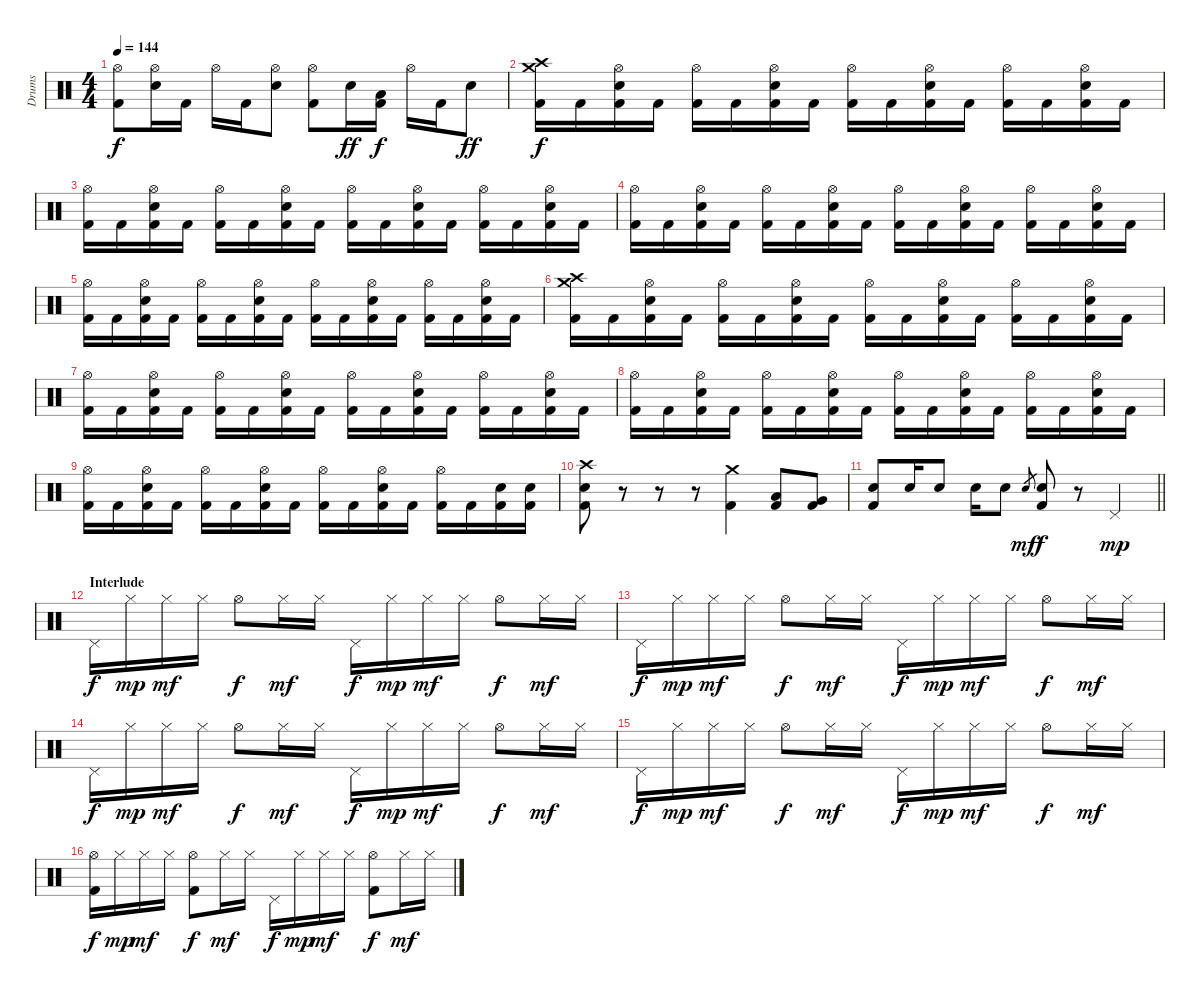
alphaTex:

\track ("Drums" "Drums") {instrument percussion}
\staff {score}
\articulation defaults
\ts (4 4)
\tempo 144
\clef neutral
\ks c
("Kick (hit) 2" "Hi-Hat (open)").8{dy f} ("Electric Snare (hit)" "Hi-Hat (open)").16 "Kick (hit) 2".16 "Hi-Hat (open)".16 "Kick (hit) 2".16 ("Electric Snare (hit)" "Hi-Hat (open)").8 ("Kick (hit) 2" "Hi-Hat (open)").8 "Electric Snare (hit)".16{dy ff} ("Kick (hit) 2" "Low Tom (hit)").16{dy f} "Hi-Hat (open)".16 "Kick (hit) 2".16 "Electric Snare (hit)".8{dy ff} |
("Kick (hit) 2" "Crash high (hit)" "Crash medium (hit)").16{dy f} "Kick (hit) 2".16 ("Kick (hit) 2" "Electric Snare (hit)" "Hi-Hat (open)").16 "Kick (hit) 2".16 ("Kick (hit) 2" "Hi-Hat (open)").16 "Kick (hit) 2".16 ("Kick (hit) 2" "Electric Snare (hit)" "Hi-Hat (open)").16 "Kick (hit) 2".16 ("Kick (hit) 2" "Hi-Hat (open)").16 "Kick (hit) 2".16 ("Kick (hit) 2" "Electric Snare (hit)" "Hi-Hat (open)").16 "Kick (hit) 2".16 ("Kick (hit) 2" "Hi-Hat (open)").16 "Kick (hit) 2".16 ("Kick (hit) 2" "Electric Snare (hit)" "Hi-Hat (open)").16 "Kick (hit) 2".16 |
("Kick (hit) 2" "Hi-Hat (open)").16 "Kick (hit) 2".16 ("Kick (hit) 2" "Electric Snare (hit)" "Hi-Hat (open)").16 "Kick (hit) 2".16 ("Kick (hit) 2" "Hi-Hat (open)").16 "Kick (hit) 2".16 ("Kick (hit) 2" "Electric Snare (hit)" "Hi-Hat (open)").16 "Kick (hit) 2".16 ("Kick (hit) 2" "Hi-Hat (open)").16 "Kick (hit) 2".16 ("Kick (hit) 2" "Electric Snare (hit)" "Hi-Hat (open)").16 "Kick (hit) 2".16 ("Kick (hit) 2" "Hi-Hat (open)").16 "Kick (hit) 2".16 ("Kick (hit) 2" "Electric Snare (hit)" "Hi-Hat (open)").16 "Kick (hit) 2".16 |
("Kick (hit) 2" "Hi-Hat (open)").16 "Kick (hit) 2".16 ("Kick (hit) 2" "Electric Snare (hit)" "Hi-Hat (open)").16 "Kick (hit) 2".16 ("Kick (hit) 2" "Hi-Hat (open)").16 "Kick (hit) 2".16 ("Kick (hit) 2" "Electric Snare (hit)" "Hi-Hat (open)").16 "Kick (hit) 2".16 ("Kick (hit) 2" "Hi-Hat (open)").16 "Kick (hit) 2".16 ("Kick (hit) 2" "Electric Snare (hit)" "Hi-Hat (open)").16 "Kick (hit) 2".16 ("Kick (hit) 2" "Hi-Hat (open)").16 "Kick (hit) 2".16 ("Kick (hit) 2" "Electric Snare (hit)" "Hi-Hat (open)").16 "Kick (hit) 2".16 |
("Kick (hit) 2" "Hi-Hat (open)").16 "Kick (hit) 2".16 ("Kick (hit) 2" "Electric Snare (hit)" "Hi-Hat (open)").16 "Kick (hit) 2".16 ("Kick (hit) 2" "Hi-Hat (open)").16 "Kick (hit) 2".16 ("Kick (hit) 2" "Electric Snare (hit)" "Hi-Hat (open)").16 "Kick (hit) 2".16 ("Kick (hit) 2" "Hi-Hat (open)").16 "Kick (hit) 2".16 ("Kick (hit) 2" "Electric Snare (hit)" "Hi-Hat (open)").16 "Kick (hit) 2".16 ("Kick (hit) 2" "Hi-Hat (open)").16 "Kick (hit) 2".16 ("Kick (hit) 2" "Electric Snare (hit)" "Hi-Hat (open)").16 "Kick (hit) 2".16 |
("Kick (hit) 2" "Crash high (hit)" "Crash medium (hit)").16 "Kick (hit) 2".16 ("Kick (hit) 2" "Electric Snare (hit)" "Hi-Hat (open)").16 "Kick (hit) 2".16 ("Kick (hit) 2" "Hi-Hat (open)").16 "Kick (hit) 2".16 ("Kick (hit) 2" "Electric Snare (hit)" "Hi-Hat (open)").16 "Kick (hit) 2".16 ("Kick (hit) 2" "Hi-Hat (open)").16 "Kick (hit) 2".16 ("Kick (hit) 2" "Electric Snare (hit)" "Hi-Hat (open)").16 "Kick (hit) 2".16 ("Kick (hit) 2" "Hi-Hat (open)").16 "Kick (hit) 2".16 ("Kick (hit) 2" "Electric Snare (hit)" "Hi-Hat (open)").16 "Kick (hit) 2".16 |
("Kick (hit) 2" "Hi-Hat (open)").16 "Kick (hit) 2".16 ("Kick (hit) 2" "Electric Snare (hit)" "Hi-Hat (open)").16 "Kick (hit) 2".16 ("Kick (hit) 2" "Hi-Hat (open)").16 "Kick (hit) 2".16 ("Kick (hit) 2" "Electric Snare (hit)" "Hi-Hat (open)").16 "Kick (hit) 2".16 ("Kick (hit) 2" "Hi-Hat (open)").16 "Kick (hit) 2".16 ("Kick (hit) 2" "Electric Snare (hit)" "Hi-Hat (open)").16 "Kick (hit) 2".16 ("Kick (hit) 2" "Hi-Hat (open)").16 "Kick (hit) 2".16 ("Kick (hit) 2" "Electric Snare (hit)" "Hi-Hat (open)").16 "Kick (hit) 2".16 |
("Kick (hit) 2" "Hi-Hat (open)").16 "Kick (hit) 2".16 ("Kick (hit) 2" "Electric Snare (hit)" "Hi-Hat (open)").16 "Kick (hit) 2".16 ("Kick (hit) 2" "Hi-Hat (open)").16 "Kick (hit) 2".16 ("Kick (hit) 2" "Electric Snare (hit)" "Hi-Hat (open)").16 "Kick (hit) 2".16 ("Kick (hit) 2" "Hi-Hat (open)").16 "Kick (hit) 2".16 ("Kick (hit) 2" "Electric Snare (hit)" "Hi-Hat (open)").16 "Kick (hit) 2".16 ("Kick (hit) 2" "Hi-Hat (open)").16 "Kick (hit) 2".16 ("Kick (hit) 2" "Electric Snare (hit)" "Hi-Hat (open)").16 "Kick (hit) 2".16 |
("Kick (hit) 2" "Hi-Hat (open)").16 "Kick (hit) 2".16 ("Kick (hit) 2" "Electric Snare (hit)" "Hi-Hat (open)").16 "Kick (hit) 2".16 ("Kick (hit) 2" "Hi-Hat (open)").16 "Kick (hit) 2".16 ("Kick (hit) 2" "Electric Snare (hit)" "Hi-Hat (open)").16 "Kick (hit) 2".16 ("Kick (hit) 2" "Hi-Hat (open)").16 "Kick (hit) 2".16 ("Kick (hit) 2" "Electric Snare (hit)" "Hi-Hat (open)").16 "Kick (hit) 2".16 ("Kick (hit) 2" "Hi-Hat (open)").16 "Kick (hit) 2".16 ("Kick (hit) 2" "Electric Snare (hit)").16 ("Kick (hit) 2" "Electric Snare (hit)").16 |
("Kick (hit) 2" "Electric Snare (hit)" "Crash high (hit)").8 r.8 r.8 r.8 ("Kick (hit) 2" "Crash medium (hit)").4 ("Kick (hit) 2" "Low Tom (hit)").8 ("Kick (hit) 2" "Very Low Tom (hit)").8 |
\barLineRight lightlight
("Kick (hit) 2" "Electric Snare (hit)").8 "Electric Snare (hit)".16 "Electric Snare (hit)".8 "Electric Snare (hit)".16 "Electric Snare (hit)".8 "Electric Snare (hit)".8{gr dy mf} ("Kick (hit) 2" "Electric Snare (hit)").8{dy f} r.8 "Pedal Hi-Hat (hit)".4{dy mp} |
\section ("" "Interlude")
"Pedal Hi-Hat (hit)".16{dy f} "Hi-Hat (closed)".16{dy mp} "Hi-Hat (closed)".16{dy mf} "Hi-Hat (closed)".16 "Hi-Hat (open)".8{dy f} "Hi-Hat (closed)".16{dy mf} "Hi-Hat (closed)".16 "Pedal Hi-Hat (hit)".16{dy f} "Hi-Hat (closed)".16{dy mp} "Hi-Hat (closed)".16{dy mf} "Hi-Hat (closed)".16 "Hi-Hat (open)".8{dy f} "Hi-Hat (closed)".16{dy mf} "Hi-Hat (closed)".16 |
"Pedal Hi-Hat (hit)".16{dy f} "Hi-Hat (closed)".16{dy mp} "Hi-Hat (closed)".16{dy mf} "Hi-Hat (closed)".16 "Hi-Hat (open)".8{dy f} "Hi-Hat (closed)".16{dy mf} "Hi-Hat (closed)".16 "Pedal Hi-Hat (hit)".16{dy f} "Hi-Hat (closed)".16{dy mp} "Hi-Hat (closed)".16{dy mf} "Hi-Hat (closed)".16 "Hi-Hat (open)".8{dy f} "Hi-Hat (closed)".16{dy mf} "Hi-Hat (closed)".16 |
"Pedal Hi-Hat (hit)".16{dy f} "Hi-Hat (closed)".16{dy mp} "Hi-Hat (closed)".16{dy mf} "Hi-Hat (closed)".16 "Hi-Hat (open)".8{dy f} "Hi-Hat (closed)".16{dy mf} "Hi-Hat (closed)".16 "Pedal Hi-Hat (hit)".16{dy f} "Hi-Hat (closed)".16{dy mp} "Hi-Hat (closed)".16{dy mf} "Hi-Hat (closed)".16 "Hi-Hat (open)".8{dy f} "Hi-Hat (closed)".16{dy mf} "Hi-Hat (closed)".16 |
"Pedal Hi-Hat (hit)".16{dy f} "Hi-Hat (closed)".16{dy mp} "Hi-Hat (closed)".16{dy mf} "Hi-Hat (closed)".16 "Hi-Hat (open)".8{dy f} "Hi-Hat (closed)".16{dy mf} "Hi-Hat (closed)".16 "Pedal Hi-Hat (hit)".16{dy f} "Hi-Hat (closed)".16{dy mp} "Hi-Hat (closed)".16{dy mf} "Hi-Hat (closed)".16 "Hi-Hat (open)".8{dy f} "Hi-Hat (closed)".16{dy mf} "Hi-Hat (closed)".16 |
("Kick (hit) 2" "Hi-Hat (open)").16{dy f} "Hi-Hat (closed)".16{dy mp} "Hi-Hat (closed)".16{dy mf} "Hi-Hat (closed)".16 ("Kick (hit) 2" "Hi-Hat (open)").8{dy f} "Hi-Hat (closed)".16{dy mf} "Hi-Hat (closed)".16 "Pedal Hi-Hat (hit)".16{dy f} "Hi-Hat (closed)".16{dy mp} "Hi-Hat (closed)".16{dy mf} "Hi-Hat (closed)".16 ("Kick (hit) 2" "Hi-Hat (open)").8{dy f} "Hi-Hat (closed)".16{dy mf} "Hi-Hat (closed)".16
